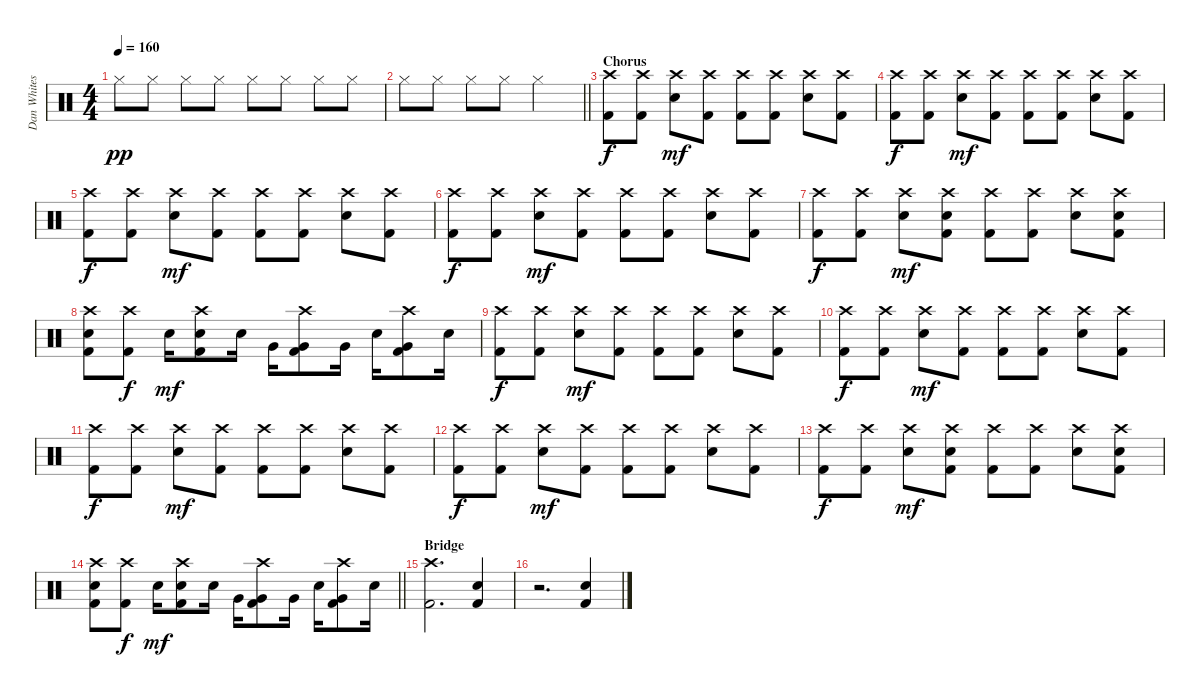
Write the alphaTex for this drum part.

\track ("Dan Whitesides" "Dan Whites") {instrument percussion}
\staff {score}
\articulation defaults
\ts (4 4)
\tempo 160
\clef neutral
\ks c "Hi-Hat (closed)".8{dy pp} "Hi-Hat (closed)".8 "Hi-Hat (closed)".8 "Hi-Hat (closed)".8 "Hi-Hat (closed)".8 "Hi-Hat (closed)".8 "Hi-Hat (closed)".8 "Hi-Hat (closed)".8
|
\barLineRight lightlight "Hi-Hat (closed)".8 "Hi-Hat (closed)".8 "Hi-Hat (closed)".8 "Hi-Hat (closed)".8 "Hi-Hat (closed)".2
|
\section ("" "Chorus")
("Crash high (hit)" "Kick (hit) 2").8{dy f} ("Crash high (hit)" "Kick (hit) 2").8 ("Crash high (hit)" "Snare (hit) 2").8{dy mf} ("Crash high (hit)" "Kick (hit) 2").8 ("Crash high (hit)" "Kick (hit) 2").8 ("Crash high (hit)" "Kick (hit) 2").8 ("Crash high (hit)" "Snare (hit) 2").8 ("Crash high (hit)" "Kick (hit) 2").8 |
("Crash high (hit)" "Kick (hit) 2").8{dy f} ("Crash high (hit)" "Kick (hit) 2").8 ("Crash high (hit)" "Snare (hit) 2").8{dy mf} ("Crash high (hit)" "Kick (hit) 2").8 ("Crash high (hit)" "Kick (hit) 2").8 ("Crash high (hit)" "Kick (hit) 2").8 ("Crash high (hit)" "Snare (hit) 2").8 ("Crash high (hit)" "Kick (hit) 2").8 |
("Crash high (hit)" "Kick (hit) 2").8{dy f} ("Crash high (hit)" "Kick (hit) 2").8 ("Crash high (hit)" "Snare (hit) 2").8{dy mf} ("Crash high (hit)" "Kick (hit) 2").8 ("Crash high (hit)" "Kick (hit) 2").8 ("Crash high (hit)" "Kick (hit) 2").8 ("Crash high (hit)" "Snare (hit) 2").8 ("Crash high (hit)" "Kick (hit) 2").8 |
("Crash high (hit)" "Kick (hit) 2").8{dy f} ("Crash high (hit)" "Kick (hit) 2").8 ("Crash high (hit)" "Snare (hit) 2").8{dy mf} ("Crash high (hit)" "Kick (hit) 2").8 ("Crash high (hit)" "Kick (hit) 2").8 ("Crash high (hit)" "Kick (hit) 2").8 ("Crash high (hit)" "Snare (hit) 2").8 ("Crash high (hit)" "Kick (hit) 2").8 |
("Crash high (hit)" "Kick (hit) 2").8{dy f} ("Crash high (hit)" "Kick (hit) 2").8 ("Crash high (hit)" "Snare (hit) 2").8{dy mf} ("Crash high (hit)" "Snare (hit) 2" "Kick (hit) 2").8 ("Crash high (hit)" "Kick (hit) 2").8 ("Crash high (hit)" "Kick (hit) 2").8 ("Crash high (hit)" "Snare (hit) 2").8 ("Crash high (hit)" "Snare (hit) 2" "Kick (hit) 2").8 |
("Crash high (hit)" "Snare (hit) 2" "Kick (hit) 2").8 ("Crash high (hit)" "Kick (hit) 2").8{dy f} "Snare (hit) 2".16{dy mf} ("Crash high (hit)" "Snare (hit) 2" "Kick (hit) 2").8 "Snare (hit) 2".16 "Very Low Tom (hit)".16 ("Crash high (hit)" "Very Low Tom (hit)" "Kick (hit) 2").8 "Very Low Tom (hit)".16 "Snare (hit) 2".16 ("Crash high (hit)" "Very Low Tom (hit)" "Kick (hit) 2").8 "Snare (hit) 2".16 |
("Crash high (hit)" "Kick (hit) 2").8{dy f} ("Crash high (hit)" "Kick (hit) 2").8 ("Crash high (hit)" "Snare (hit) 2").8{dy mf} ("Crash high (hit)" "Kick (hit) 2").8 ("Crash high (hit)" "Kick (hit) 2").8 ("Crash high (hit)" "Kick (hit) 2").8 ("Crash high (hit)" "Snare (hit) 2").8 ("Crash high (hit)" "Kick (hit) 2").8 |
("Crash high (hit)" "Kick (hit) 2").8{dy f} ("Crash high (hit)" "Kick (hit) 2").8 ("Crash high (hit)" "Snare (hit) 2").8{dy mf} ("Crash high (hit)" "Kick (hit) 2").8 ("Crash high (hit)" "Kick (hit) 2").8 ("Crash high (hit)" "Kick (hit) 2").8 ("Crash high (hit)" "Snare (hit) 2").8 ("Crash high (hit)" "Kick (hit) 2").8 |
("Crash high (hit)" "Kick (hit) 2").8{dy f} ("Crash high (hit)" "Kick (hit) 2").8 ("Crash high (hit)" "Snare (hit) 2").8{dy mf} ("Crash high (hit)" "Kick (hit) 2").8 ("Crash high (hit)" "Kick (hit) 2").8 ("Crash high (hit)" "Kick (hit) 2").8 ("Crash high (hit)" "Snare (hit) 2").8 ("Crash high (hit)" "Kick (hit) 2").8 |
("Crash high (hit)" "Kick (hit) 2").8{dy f} ("Crash high (hit)" "Kick (hit) 2").8 ("Crash high (hit)" "Snare (hit) 2").8{dy mf} ("Crash high (hit)" "Kick (hit) 2").8 ("Crash high (hit)" "Kick (hit) 2").8 ("Crash high (hit)" "Kick (hit) 2").8 ("Crash high (hit)" "Snare (hit) 2").8 ("Crash high (hit)" "Kick (hit) 2").8 |
("Crash high (hit)" "Kick (hit) 2").8{dy f} ("Crash high (hit)" "Kick (hit) 2").8 ("Crash high (hit)" "Snare (hit) 2").8{dy mf} ("Crash high (hit)" "Snare (hit) 2" "Kick (hit) 2").8 ("Crash high (hit)" "Kick (hit) 2").8 ("Crash high (hit)" "Kick (hit) 2").8 ("Crash high (hit)" "Snare (hit) 2").8 ("Crash high (hit)" "Snare (hit) 2" "Kick (hit) 2").8 |
\barLineRight lightlight
("Crash high (hit)" "Snare (hit) 2" "Kick (hit) 2").8 ("Crash high (hit)" "Kick (hit) 2").8{dy f} "Snare (hit) 2".16{dy mf} ("Crash high (hit)" "Snare (hit) 2" "Kick (hit) 2").8 "Snare (hit) 2".16 "Very Low Tom (hit)".16 ("Crash high (hit)" "Very Low Tom (hit)" "Kick (hit) 2").8 "Very Low Tom (hit)".16 "Snare (hit) 2".16 ("Crash high (hit)" "Very Low Tom (hit)" "Kick (hit) 2").8 "Snare (hit) 2".16 |
\section ("" "Bridge")
("Crash high (hit)" "Kick (hit) 2").2{d} ("Snare (hit) 2" "Kick (hit) 2").4 |
r.2{d} ("Snare (hit) 2" "Kick (hit) 2").4
